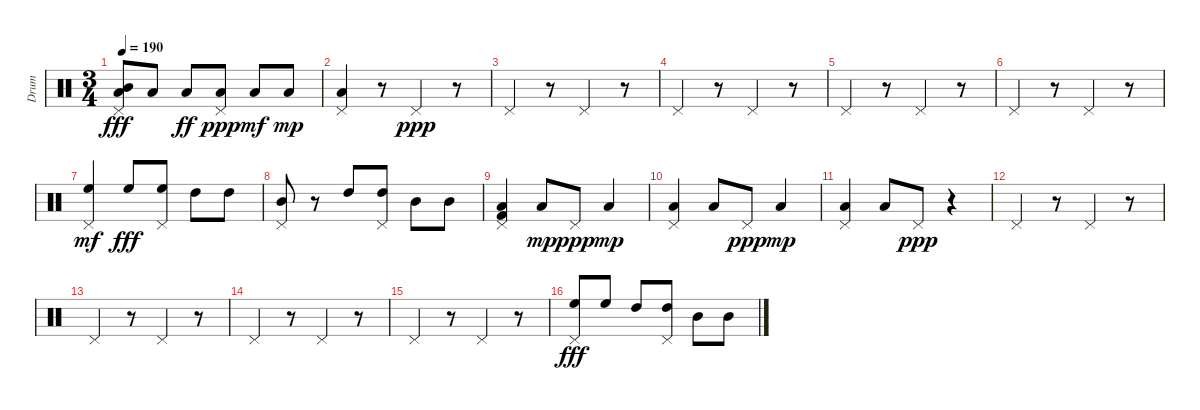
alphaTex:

\track ("Drum" "Drum") {instrument percussion}
\staff {score}
\articulation defaults
\ts (3 4)
\tempo 190
\clef neutral
\ks c
("Pedal Hi-Hat (hit)" "Mid Tom (hit)" "Low Tom (hit)").8{dy fff} "Low Tom (hit)".8 "Low Tom (hit)".8{dy ff} ("Pedal Hi-Hat (hit)" "Low Tom (hit)").8{dy ppp} "Low Tom (hit)".8{dy mf} "Low Tom (hit)".8{dy mp} |
("Pedal Hi-Hat (hit)" "Low Tom (hit)").4 r.8 "Pedal Hi-Hat (hit)".4{dy ppp} r.8 |
"Pedal Hi-Hat (hit)".4 r.8 "Pedal Hi-Hat (hit)".4 r.8 |
"Pedal Hi-Hat (hit)".4 r.8 "Pedal Hi-Hat (hit)".4 r.8 |
"Pedal Hi-Hat (hit)".4 r.8 "Pedal Hi-Hat (hit)".4 r.8 |
"Pedal Hi-Hat (hit)".4 r.8 "Pedal Hi-Hat (hit)".4 r.8 |
("Pedal Hi-Hat (hit)" "High Floor Tom (hit)").4{dy mf} "High Floor Tom (hit)".8{dy fff} ("Pedal Hi-Hat (hit)" "High Floor Tom (hit)").8 "High Tom (hit)".8 "High Tom (hit)".8 |
("Pedal Hi-Hat (hit)" "Mid Tom (hit)").8 r.8 "High Tom (hit)".8 ("Pedal Hi-Hat (hit)" "High Tom (hit)").8 "Mid Tom (hit)".8 "Mid Tom (hit)".8 |
("Pedal Hi-Hat (hit)" "Low Tom (hit)" "Kick (hit) 2").4 "Low Tom (hit)".8{dy mp} "Pedal Hi-Hat (hit)".8{dy ppp} "Low Tom (hit)".4{dy mp} |
("Pedal Hi-Hat (hit)" "Low Tom (hit)").4 "Low Tom (hit)".8 "Pedal Hi-Hat (hit)".8{dy ppp} "Low Tom (hit)".4{dy mp} |
("Pedal Hi-Hat (hit)" "Low Tom (hit)").4 "Low Tom (hit)".8 "Pedal Hi-Hat (hit)".8{dy ppp} r.4 |
"Pedal Hi-Hat (hit)".4 r.8 "Pedal Hi-Hat (hit)".4 r.8 |
"Pedal Hi-Hat (hit)".4 r.8 "Pedal Hi-Hat (hit)".4 r.8 |
"Pedal Hi-Hat (hit)".4 r.8 "Pedal Hi-Hat (hit)".4 r.8 |
"Pedal Hi-Hat (hit)".4 r.8 "Pedal Hi-Hat (hit)".4 r.8 |
("Pedal Hi-Hat (hit)" "High Floor Tom (hit)").8{dy fff} "High Floor Tom (hit)".8 "High Tom (hit)".8 ("Pedal Hi-Hat (hit)" "High Tom (hit)").8 "Mid Tom (hit)".8 "Mid Tom (hit)".8
